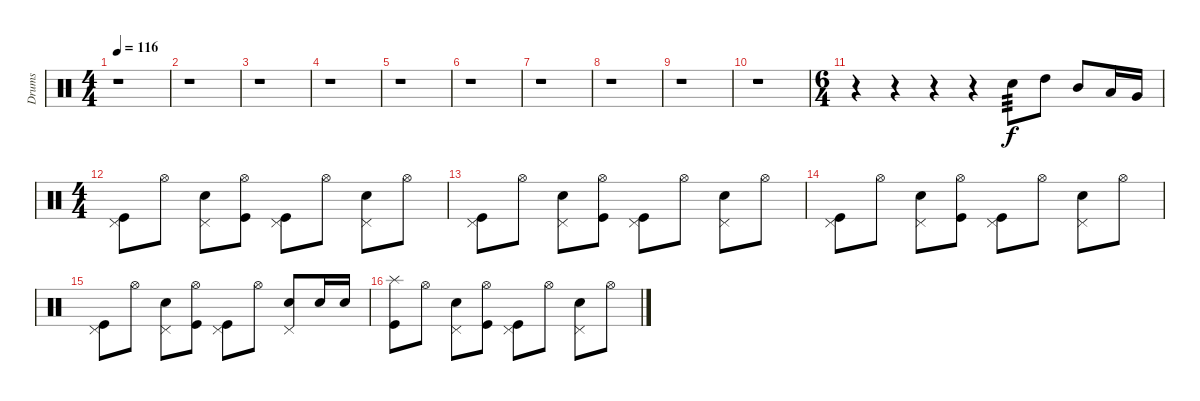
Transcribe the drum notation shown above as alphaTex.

\track ("Drums" "Drums") {instrument percussion}
\staff {score}
\articulation defaults
\ts (4 4)
\tempo 116
\clef neutral
\ks c
r.1{dy f} |
r.1 |
r.1 |
r.1 |
r.1 |
r.1 |
r.1 |
r.1 |
r.1 |
r.1 |
\ts (6 4)
r.4 r.4 r.4 r.4 "Electric Snare (hit)".8{tp 3} "High Tom (hit)".8 "Mid Tom (hit)".8 "Low Tom (hit)".16 "Very Low Tom (hit)".16 |
\ts (4 4)
("Pedal Hi-Hat (hit)" "Kick (hit)").8 "Hi-Hat (open)".8 ("Pedal Hi-Hat (hit)" "Electric Snare (hit)").8 ("Hi-Hat (open)" "Kick (hit)").8 ("Pedal Hi-Hat (hit)" "Kick (hit)").8 "Hi-Hat (open)".8 ("Pedal Hi-Hat (hit)" "Electric Snare (hit)").8 "Hi-Hat (open)".8 |
("Pedal Hi-Hat (hit)" "Kick (hit)").8 "Hi-Hat (open)".8 ("Pedal Hi-Hat (hit)" "Electric Snare (hit)").8 ("Hi-Hat (open)" "Kick (hit)").8 ("Pedal Hi-Hat (hit)" "Kick (hit)").8 "Hi-Hat (open)".8 ("Pedal Hi-Hat (hit)" "Electric Snare (hit)").8 "Hi-Hat (open)".8 |
("Pedal Hi-Hat (hit)" "Kick (hit)").8 "Hi-Hat (open)".8 ("Pedal Hi-Hat (hit)" "Electric Snare (hit)").8 ("Hi-Hat (open)" "Kick (hit)").8 ("Pedal Hi-Hat (hit)" "Kick (hit)").8 "Hi-Hat (open)".8 ("Pedal Hi-Hat (hit)" "Electric Snare (hit)").8 "Hi-Hat (open)".8 |
("Pedal Hi-Hat (hit)" "Kick (hit)").8 "Hi-Hat (open)".8 ("Pedal Hi-Hat (hit)" "Electric Snare (hit)").8 ("Hi-Hat (open)" "Kick (hit)").8 ("Pedal Hi-Hat (hit)" "Kick (hit)").8 "Hi-Hat (open)".8 ("Pedal Hi-Hat (hit)" "Electric Snare (hit)").8 "Electric Snare (hit)".16 "Electric Snare (hit)".16 |
("Splash (hit)" "Kick (hit)").8 "Hi-Hat (open)".8 ("Pedal Hi-Hat (hit)" "Electric Snare (hit)").8 ("Hi-Hat (open)" "Kick (hit)").8 ("Pedal Hi-Hat (hit)" "Kick (hit)").8 "Hi-Hat (open)".8 ("Pedal Hi-Hat (hit)" "Electric Snare (hit)").8 "Hi-Hat (open)".8
